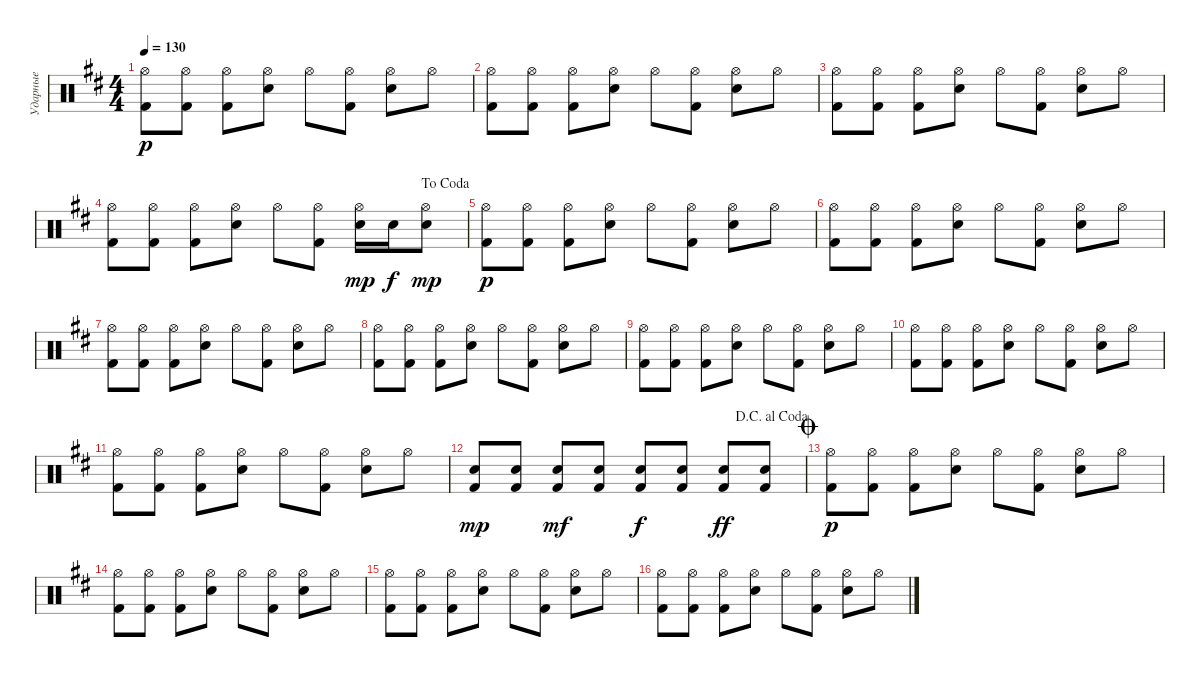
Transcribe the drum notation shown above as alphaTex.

\track ("Ударные" "Ударные") {instrument percussion}
\staff {score}
\articulation defaults
\ts (4 4)
\tempo 130
\clef neutral
\ks d
("Kick (hit) 2" "Hi-Hat (open)").8{dy p} ("Kick (hit) 2" "Hi-Hat (open)").8 ("Kick (hit) 2" "Hi-Hat (open)").8 ("Electric Snare (hit)" "Hi-Hat (open)").8 "Hi-Hat (open)".8 ("Kick (hit) 2" "Hi-Hat (open)").8 ("Electric Snare (hit)" "Hi-Hat (open)").8 "Hi-Hat (open)".8 |
("Kick (hit) 2" "Hi-Hat (open)").8 ("Kick (hit) 2" "Hi-Hat (open)").8 ("Kick (hit) 2" "Hi-Hat (open)").8 ("Electric Snare (hit)" "Hi-Hat (open)").8 "Hi-Hat (open)".8 ("Kick (hit) 2" "Hi-Hat (open)").8 ("Electric Snare (hit)" "Hi-Hat (open)").8 "Hi-Hat (open)".8 |
("Kick (hit) 2" "Hi-Hat (open)").8 ("Kick (hit) 2" "Hi-Hat (open)").8 ("Kick (hit) 2" "Hi-Hat (open)").8 ("Electric Snare (hit)" "Hi-Hat (open)").8 "Hi-Hat (open)".8 ("Kick (hit) 2" "Hi-Hat (open)").8 ("Electric Snare (hit)" "Hi-Hat (open)").8 "Hi-Hat (open)".8 |
\jump dacoda
("Kick (hit) 2" "Hi-Hat (open)").8 ("Kick (hit) 2" "Hi-Hat (open)").8 ("Kick (hit) 2" "Hi-Hat (open)").8 ("Electric Snare (hit)" "Hi-Hat (open)").8 "Hi-Hat (open)".8 ("Kick (hit) 2" "Hi-Hat (open)").8 ("Electric Snare (hit)" "Hi-Hat (open)").16{dy mp} "Electric Snare (hit)".16{dy f} ("Hi-Hat (open)" "Electric Snare (hit)").8{dy mp} |
("Kick (hit) 2" "Hi-Hat (open)").8{dy p} ("Kick (hit) 2" "Hi-Hat (open)").8 ("Kick (hit) 2" "Hi-Hat (open)").8 ("Electric Snare (hit)" "Hi-Hat (open)").8 "Hi-Hat (open)".8 ("Kick (hit) 2" "Hi-Hat (open)").8 ("Electric Snare (hit)" "Hi-Hat (open)").8 "Hi-Hat (open)".8 |
("Kick (hit) 2" "Hi-Hat (open)").8 ("Kick (hit) 2" "Hi-Hat (open)").8 ("Kick (hit) 2" "Hi-Hat (open)").8 ("Electric Snare (hit)" "Hi-Hat (open)").8 "Hi-Hat (open)".8 ("Kick (hit) 2" "Hi-Hat (open)").8 ("Electric Snare (hit)" "Hi-Hat (open)").8 "Hi-Hat (open)".8 |
("Kick (hit) 2" "Hi-Hat (open)").8 ("Kick (hit) 2" "Hi-Hat (open)").8 ("Kick (hit) 2" "Hi-Hat (open)").8 ("Electric Snare (hit)" "Hi-Hat (open)").8 "Hi-Hat (open)".8 ("Kick (hit) 2" "Hi-Hat (open)").8 ("Electric Snare (hit)" "Hi-Hat (open)").8 "Hi-Hat (open)".8 |
("Kick (hit) 2" "Hi-Hat (open)").8 ("Kick (hit) 2" "Hi-Hat (open)").8 ("Kick (hit) 2" "Hi-Hat (open)").8 ("Electric Snare (hit)" "Hi-Hat (open)").8 "Hi-Hat (open)".8 ("Kick (hit) 2" "Hi-Hat (open)").8 ("Electric Snare (hit)" "Hi-Hat (open)").8 "Hi-Hat (open)".8 |
("Kick (hit) 2" "Hi-Hat (open)").8 ("Kick (hit) 2" "Hi-Hat (open)").8 ("Kick (hit) 2" "Hi-Hat (open)").8 ("Electric Snare (hit)" "Hi-Hat (open)").8 "Hi-Hat (open)".8 ("Kick (hit) 2" "Hi-Hat (open)").8 ("Electric Snare (hit)" "Hi-Hat (open)").8 "Hi-Hat (open)".8 |
("Kick (hit) 2" "Hi-Hat (open)").8 ("Kick (hit) 2" "Hi-Hat (open)").8 ("Kick (hit) 2" "Hi-Hat (open)").8 ("Electric Snare (hit)" "Hi-Hat (open)").8 "Hi-Hat (open)".8 ("Kick (hit) 2" "Hi-Hat (open)").8 ("Electric Snare (hit)" "Hi-Hat (open)").8 "Hi-Hat (open)".8 |
("Kick (hit) 2" "Hi-Hat (open)").8 ("Kick (hit) 2" "Hi-Hat (open)").8 ("Kick (hit) 2" "Hi-Hat (open)").8 ("Electric Snare (hit)" "Hi-Hat (open)").8 "Hi-Hat (open)".8 ("Kick (hit) 2" "Hi-Hat (open)").8 ("Electric Snare (hit)" "Hi-Hat (open)").8 "Hi-Hat (open)".8 |
\jump dacapoalcoda
("Kick (hit) 2" "Electric Snare (hit)").8{dy mp} ("Kick (hit) 2" "Electric Snare (hit)").8 ("Kick (hit) 2" "Electric Snare (hit)").8{dy mf} ("Kick (hit) 2" "Electric Snare (hit)").8 ("Kick (hit) 2" "Electric Snare (hit)").8{dy f} ("Kick (hit) 2" "Electric Snare (hit)").8 ("Kick (hit) 2" "Electric Snare (hit)").8{dy ff} ("Kick (hit) 2" "Electric Snare (hit)").8 |
\jump coda
("Kick (hit) 2" "Hi-Hat (open)").8{dy p} ("Kick (hit) 2" "Hi-Hat (open)").8 ("Kick (hit) 2" "Hi-Hat (open)").8 ("Electric Snare (hit)" "Hi-Hat (open)").8 "Hi-Hat (open)".8 ("Kick (hit) 2" "Hi-Hat (open)").8 ("Electric Snare (hit)" "Hi-Hat (open)").8 "Hi-Hat (open)".8 |
("Kick (hit) 2" "Hi-Hat (open)").8 ("Kick (hit) 2" "Hi-Hat (open)").8 ("Kick (hit) 2" "Hi-Hat (open)").8 ("Electric Snare (hit)" "Hi-Hat (open)").8 "Hi-Hat (open)".8 ("Kick (hit) 2" "Hi-Hat (open)").8 ("Electric Snare (hit)" "Hi-Hat (open)").8 "Hi-Hat (open)".8 |
("Kick (hit) 2" "Hi-Hat (open)").8 ("Kick (hit) 2" "Hi-Hat (open)").8 ("Kick (hit) 2" "Hi-Hat (open)").8 ("Electric Snare (hit)" "Hi-Hat (open)").8 "Hi-Hat (open)".8 ("Kick (hit) 2" "Hi-Hat (open)").8 ("Electric Snare (hit)" "Hi-Hat (open)").8 "Hi-Hat (open)".8 |
("Kick (hit) 2" "Hi-Hat (open)").8 ("Kick (hit) 2" "Hi-Hat (open)").8 ("Kick (hit) 2" "Hi-Hat (open)").8 ("Electric Snare (hit)" "Hi-Hat (open)").8 "Hi-Hat (open)".8 ("Kick (hit) 2" "Hi-Hat (open)").8 ("Electric Snare (hit)" "Hi-Hat (open)").8 "Hi-Hat (open)".8
